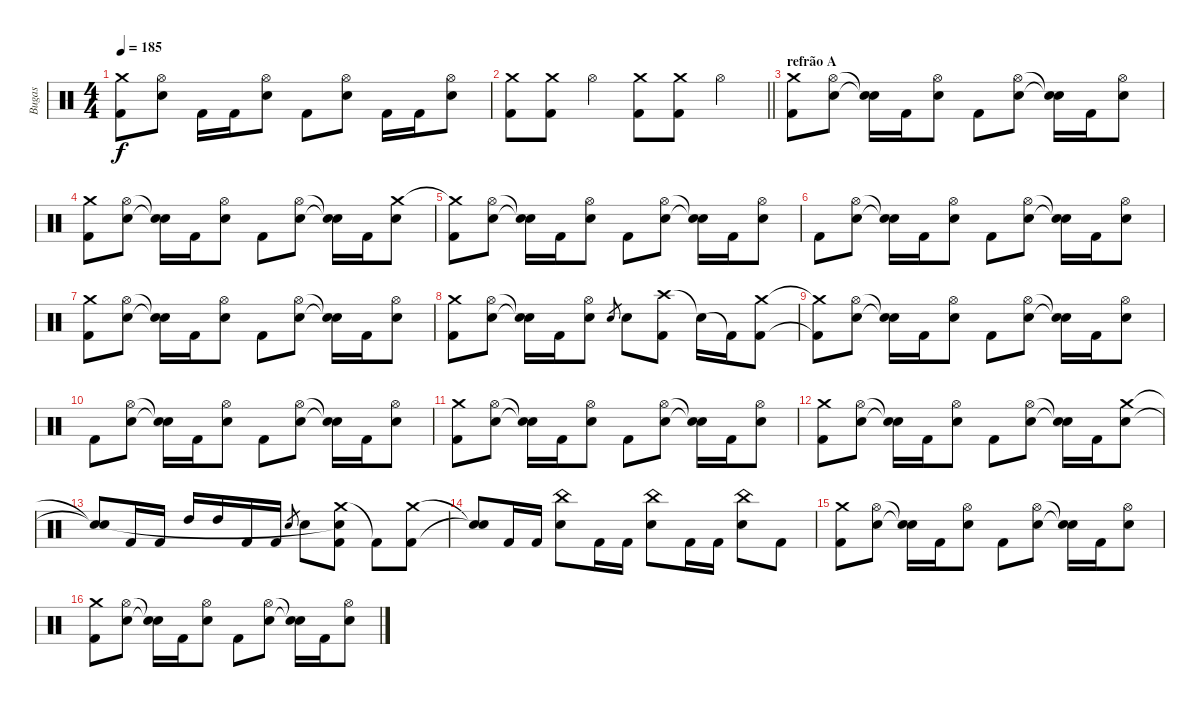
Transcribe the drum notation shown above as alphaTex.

\track ("Bugas" "Bugas") {instrument percussion}
\staff {score}
\articulation defaults
\ts (4 4)
\tempo 185
\clef neutral
\ks c
("Crash medium (hit)" "Kick (hit) 2").8{dy f} ("Hi-Hat (open)" "Electric Snare (hit)").8 "Kick (hit) 2".16 "Kick (hit) 2".16 ("Hi-Hat (open)" "Electric Snare (hit)").8 "Kick (hit) 2".8 ("Hi-Hat (open)" "Electric Snare (hit)").8 "Kick (hit) 2".16 "Kick (hit) 2".16 ("Hi-Hat (open)" "Electric Snare (hit)").8 |
\barLineRight lightlight
("Crash medium (hit)" "Kick (hit) 2").8 ("Crash medium (hit)" "Kick (hit) 2").8 "Hi-Hat (open)".4 ("Crash medium (hit)" "Kick (hit) 2").8 ("Crash medium (hit)" "Kick (hit) 2").8 "Hi-Hat (open)".4 |
\section ("" "refrão A")
("Crash medium (hit)" "Kick (hit) 2").8 ("Hi-Hat (open)" "Electric Snare (hit)").8 ("Snare (hit)"{t} "Snare (hit)"{t}).16 "Kick (hit) 2".16 ("Hi-Hat (open)" "Electric Snare (hit)").8 "Kick (hit) 2".8 ("Hi-Hat (open)" "Electric Snare (hit)").8 ("Snare (hit)"{t} "Snare (hit)"{t}).16 "Kick (hit) 2".16 ("Hi-Hat (open)" "Electric Snare (hit)").8 |
("Crash medium (hit)" "Kick (hit) 2").8 ("Hi-Hat (open)" "Electric Snare (hit)").8 ("Snare (hit)"{t} "Snare (hit)"{t}).16 "Kick (hit) 2".16 ("Hi-Hat (open)" "Electric Snare (hit)").8 "Kick (hit) 2".8 ("Hi-Hat (open)" "Electric Snare (hit)").8 ("Snare (hit)"{t} "Snare (hit)"{t}).16 "Kick (hit) 2".16 ("Crash medium (hit)" "Electric Snare (hit)").8 |
("Crash medium (hit)"{t} "Kick (hit) 2").8 ("Hi-Hat (open)" "Electric Snare (hit)").8 ("Snare (hit)"{t} "Snare (hit)"{t}).16 "Kick (hit) 2".16 ("Hi-Hat (open)" "Electric Snare (hit)").8 "Kick (hit) 2".8 ("Hi-Hat (open)" "Electric Snare (hit)").8 ("Snare (hit)"{t} "Snare (hit)"{t}).16 "Kick (hit) 2".16 ("Hi-Hat (open)" "Electric Snare (hit)").8 |
"Kick (hit) 2".8 ("Hi-Hat (open)" "Electric Snare (hit)").8 ("Snare (hit)"{t} "Snare (hit)"{t}).16 "Kick (hit) 2".16 ("Hi-Hat (open)" "Electric Snare (hit)").8 "Kick (hit) 2".8 ("Hi-Hat (open)" "Electric Snare (hit)").8 ("Snare (hit)"{t} "Snare (hit)"{t}).16 "Kick (hit) 2".16 ("Hi-Hat (open)" "Electric Snare (hit)").8 |
("Crash medium (hit)" "Kick (hit) 2").8 ("Hi-Hat (open)" "Electric Snare (hit)").8 ("Snare (hit)"{t} "Snare (hit)"{t}).16 "Kick (hit) 2".16 ("Hi-Hat (open)" "Electric Snare (hit)").8 "Kick (hit) 2".8 ("Hi-Hat (open)" "Electric Snare (hit)").8 ("Snare (hit)"{t} "Snare (hit)"{t}).16 "Kick (hit) 2".16 ("Hi-Hat (open)" "Electric Snare (hit)").8 |
("Crash medium (hit)" "Kick (hit) 2").8 ("Hi-Hat (open)" "Electric Snare (hit)").8 ("Snare (hit)"{t} "Snare (hit)"{t}).16 "Kick (hit) 2".16 ("Hi-Hat (open)" "Electric Snare (hit)").8 "Electric Snare (hit)".8{gr} "Electric Snare (hit)".8 ("Crash high (hit)" "Kick (hit) 2").8 "Snare (hit)"{t}.16 "Kick (hit) 2"{t}.16 ("Crash medium (hit)" "Kick (hit) 2").8 |
("Crash medium (hit)"{t} "Kick (hit) 2"{t}).8 ("Hi-Hat (open)" "Electric Snare (hit)").8 ("Snare (hit)"{t} "Snare (hit)"{t}).16 "Kick (hit) 2".16 ("Hi-Hat (open)" "Electric Snare (hit)").8 "Kick (hit) 2".8 ("Hi-Hat (open)" "Electric Snare (hit)").8 ("Snare (hit)"{t} "Snare (hit)"{t}).16 "Kick (hit) 2".16 ("Hi-Hat (open)" "Electric Snare (hit)").8 |
"Kick (hit) 2".8 ("Hi-Hat (open)" "Electric Snare (hit)").8 ("Snare (hit)"{t} "Snare (hit)"{t}).16 "Kick (hit) 2".16 ("Hi-Hat (open)" "Electric Snare (hit)").8 "Kick (hit) 2".8 ("Hi-Hat (open)" "Electric Snare (hit)").8 ("Snare (hit)"{t} "Snare (hit)"{t}).16 "Kick (hit) 2".16 ("Hi-Hat (open)" "Electric Snare (hit)").8 |
("Crash medium (hit)" "Kick (hit) 2").8 ("Hi-Hat (open)" "Electric Snare (hit)").8 ("Snare (hit)"{t} "Snare (hit)"{t}).16 "Kick (hit) 2".16 ("Hi-Hat (open)" "Electric Snare (hit)").8 "Kick (hit) 2".8 ("Hi-Hat (open)" "Electric Snare (hit)").8 ("Snare (hit)"{t} "Snare (hit)"{t}).16 "Kick (hit) 2".16 ("Hi-Hat (open)" "Electric Snare (hit)").8 |
("Crash medium (hit)" "Kick (hit) 2").8 ("Hi-Hat (open)" "Electric Snare (hit)").8 ("Snare (hit)"{t} "Snare (hit)"{t}).16 "Kick (hit) 2".16 ("Hi-Hat (open)" "Electric Snare (hit)").8 "Kick (hit) 2".8 ("Hi-Hat (open)" "Electric Snare (hit)").8 ("Snare (hit)"{t} "Snare (hit)"{t}).16 "Kick (hit) 2".16 ("Crash medium (hit)" "Electric Snare (hit)").8 |
("Snare (hit)"{t} "Snare (hit)"{t}).8 "Kick (hit) 2".16 "Kick (hit) 2".16 "High Tom (hit)".16 "High Tom (hit)".16 "Kick (hit) 2".16 "Kick (hit) 2".16 "Electric Snare (hit)".8{gr} "Electric Snare (hit)".8 ("Crash medium (hit)" "Snare (hit)"{t} "Kick (hit) 2").8 "Kick (hit) 2"{t}.8 ("Crash medium (hit)" "Kick (hit) 2").8 |
("Snare (hit)"{t} "Snare (hit)"{t}).8 "Kick (hit) 2".16 "Kick (hit) 2".16 ("China (hit)" "Electric Snare (hit)").8 "Kick (hit) 2".16 "Kick (hit) 2".16 ("China (hit)" "Electric Snare (hit)").8 "Kick (hit) 2".16 "Kick (hit) 2".16 ("China (hit)" "Electric Snare (hit)").8 "Kick (hit) 2".8 |
("Crash medium (hit)" "Kick (hit) 2").8 ("Hi-Hat (open)" "Electric Snare (hit)").8 ("Snare (hit)"{t} "Snare (hit)"{t}).16 "Kick (hit) 2".16 ("Hi-Hat (open)" "Electric Snare (hit)").8 "Kick (hit) 2".8 ("Hi-Hat (open)" "Electric Snare (hit)").8 ("Snare (hit)"{t} "Snare (hit)"{t}).16 "Kick (hit) 2".16 ("Hi-Hat (open)" "Electric Snare (hit)").8 |
("Crash medium (hit)" "Kick (hit) 2").8 ("Hi-Hat (open)" "Electric Snare (hit)").8 ("Snare (hit)"{t} "Snare (hit)"{t}).16 "Kick (hit) 2".16 ("Hi-Hat (open)" "Electric Snare (hit)").8 "Kick (hit) 2".8 ("Hi-Hat (open)" "Electric Snare (hit)").8 ("Snare (hit)"{t} "Snare (hit)"{t}).16 "Kick (hit) 2".16 ("Hi-Hat (open)" "Electric Snare (hit)").8
